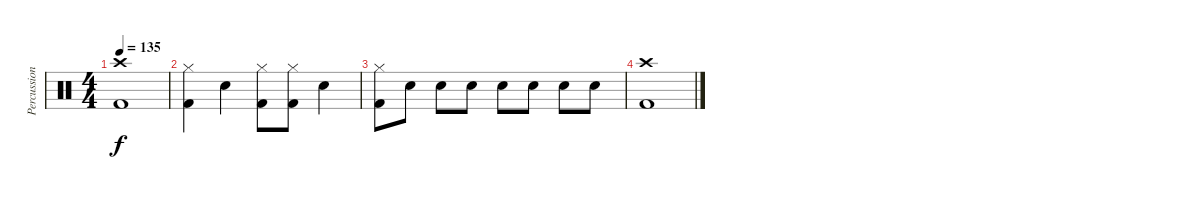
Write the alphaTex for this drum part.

\track ("Percussion" "Percussion") {instrument percussion}
\staff {score}
\articulation defaults
\ts (4 4)
\tempo 135
\clef neutral
\ks c
("Crash high (hit)" "Kick (hit) 2").1{dy f} |
("Hi-Hat (closed)" "Kick (hit) 2").4 "Snare (hit) 2".4 ("Kick (hit) 2" "Hi-Hat (closed)").8 ("Kick (hit) 2" "Hi-Hat (closed)").8 "Snare (hit) 2".4 |
("Hi-Hat (closed)" "Kick (hit) 2").8 "Snare (hit) 2".8 "Snare (hit) 2".8 "Snare (hit) 2".8 "Snare (hit) 2".8 "Snare (hit) 2".8 "Snare (hit) 2".8 "Snare (hit) 2".8 |
("Crash high (hit)" "Kick (hit) 2").1
